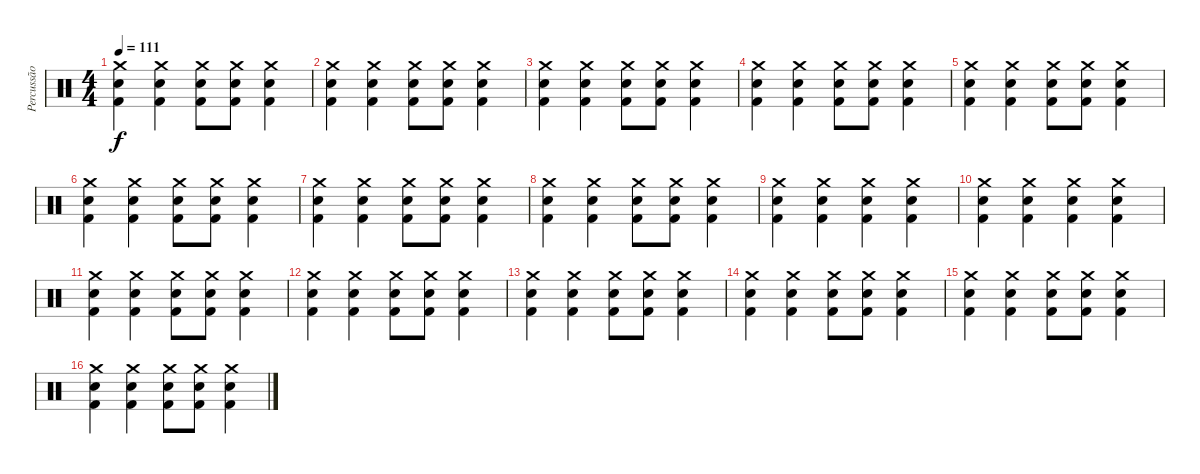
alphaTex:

\track ("Percussão" "Percussão") {instrument percussion}
\staff {score}
\articulation defaults
\ts (4 4)
\tempo 111
\clef neutral
\ks c
("Kick (hit) 2" "Electric Snare (hit)" "Crash medium (hit)").4{dy f} ("Kick (hit) 2" "Electric Snare (hit)" "Crash medium (hit)").4 ("Kick (hit) 2" "Electric Snare (hit)" "Crash medium (hit)").8 ("Kick (hit) 2" "Electric Snare (hit)" "Crash medium (hit)").8 ("Kick (hit) 2" "Electric Snare (hit)" "Crash medium (hit)").4 |
("Kick (hit) 2" "Electric Snare (hit)" "Crash medium (hit)").4 ("Kick (hit) 2" "Electric Snare (hit)" "Crash medium (hit)").4 ("Kick (hit) 2" "Electric Snare (hit)" "Crash medium (hit)").8 ("Kick (hit) 2" "Electric Snare (hit)" "Crash medium (hit)").8 ("Kick (hit) 2" "Electric Snare (hit)" "Crash medium (hit)").4 |
("Kick (hit) 2" "Electric Snare (hit)" "Crash medium (hit)").4 ("Kick (hit) 2" "Electric Snare (hit)" "Crash medium (hit)").4 ("Kick (hit) 2" "Electric Snare (hit)" "Crash medium (hit)").8 ("Kick (hit) 2" "Electric Snare (hit)" "Crash medium (hit)").8 ("Kick (hit) 2" "Electric Snare (hit)" "Crash medium (hit)").4 |
("Kick (hit) 2" "Electric Snare (hit)" "Crash medium (hit)").4 ("Kick (hit) 2" "Electric Snare (hit)" "Crash medium (hit)").4 ("Kick (hit) 2" "Electric Snare (hit)" "Crash medium (hit)").8 ("Kick (hit) 2" "Electric Snare (hit)" "Crash medium (hit)").8 ("Kick (hit) 2" "Electric Snare (hit)" "Crash medium (hit)").4 |
("Kick (hit) 2" "Electric Snare (hit)" "Crash medium (hit)").4 ("Kick (hit) 2" "Electric Snare (hit)" "Crash medium (hit)").4 ("Kick (hit) 2" "Electric Snare (hit)" "Crash medium (hit)").8 ("Kick (hit) 2" "Electric Snare (hit)" "Crash medium (hit)").8 ("Kick (hit) 2" "Electric Snare (hit)" "Crash medium (hit)").4 |
("Kick (hit) 2" "Electric Snare (hit)" "Crash medium (hit)").4 ("Kick (hit) 2" "Electric Snare (hit)" "Crash medium (hit)").4 ("Kick (hit) 2" "Electric Snare (hit)" "Crash medium (hit)").8 ("Kick (hit) 2" "Electric Snare (hit)" "Crash medium (hit)").8 ("Kick (hit) 2" "Electric Snare (hit)" "Crash medium (hit)").4 |
("Kick (hit) 2" "Electric Snare (hit)" "Crash medium (hit)").4 ("Kick (hit) 2" "Electric Snare (hit)" "Crash medium (hit)").4 ("Kick (hit) 2" "Electric Snare (hit)" "Crash medium (hit)").8 ("Kick (hit) 2" "Electric Snare (hit)" "Crash medium (hit)").8 ("Kick (hit) 2" "Electric Snare (hit)" "Crash medium (hit)").4 |
("Kick (hit) 2" "Electric Snare (hit)" "Crash medium (hit)").4 ("Kick (hit) 2" "Electric Snare (hit)" "Crash medium (hit)").4 ("Kick (hit) 2" "Electric Snare (hit)" "Crash medium (hit)").8 ("Kick (hit) 2" "Electric Snare (hit)" "Crash medium (hit)").8 ("Kick (hit) 2" "Electric Snare (hit)" "Crash medium (hit)").4 |
("Kick (hit) 2" "Electric Snare (hit)" "Crash medium (hit)").4 ("Kick (hit) 2" "Electric Snare (hit)" "Crash medium (hit)").4 ("Kick (hit) 2" "Electric Snare (hit)" "Crash medium (hit)").4 ("Kick (hit) 2" "Electric Snare (hit)" "Crash medium (hit)").4 |
("Kick (hit) 2" "Electric Snare (hit)" "Crash medium (hit)").4 ("Kick (hit) 2" "Electric Snare (hit)" "Crash medium (hit)").4 ("Kick (hit) 2" "Electric Snare (hit)" "Crash medium (hit)").4 ("Kick (hit) 2" "Electric Snare (hit)" "Crash medium (hit)").4 |
("Kick (hit) 2" "Electric Snare (hit)" "Crash medium (hit)").4 ("Kick (hit) 2" "Electric Snare (hit)" "Crash medium (hit)").4 ("Kick (hit) 2" "Electric Snare (hit)" "Crash medium (hit)").8 ("Kick (hit) 2" "Electric Snare (hit)" "Crash medium (hit)").8 ("Kick (hit) 2" "Electric Snare (hit)" "Crash medium (hit)").4 |
("Kick (hit) 2" "Electric Snare (hit)" "Crash medium (hit)").4 ("Kick (hit) 2" "Electric Snare (hit)" "Crash medium (hit)").4 ("Kick (hit) 2" "Electric Snare (hit)" "Crash medium (hit)").8 ("Kick (hit) 2" "Electric Snare (hit)" "Crash medium (hit)").8 ("Kick (hit) 2" "Electric Snare (hit)" "Crash medium (hit)").4 |
("Kick (hit) 2" "Electric Snare (hit)" "Crash medium (hit)").4 ("Kick (hit) 2" "Electric Snare (hit)" "Crash medium (hit)").4 ("Kick (hit) 2" "Electric Snare (hit)" "Crash medium (hit)").8 ("Kick (hit) 2" "Electric Snare (hit)" "Crash medium (hit)").8 ("Kick (hit) 2" "Electric Snare (hit)" "Crash medium (hit)").4 |
("Kick (hit) 2" "Electric Snare (hit)" "Crash medium (hit)").4 ("Kick (hit) 2" "Electric Snare (hit)" "Crash medium (hit)").4 ("Kick (hit) 2" "Electric Snare (hit)" "Crash medium (hit)").8 ("Kick (hit) 2" "Electric Snare (hit)" "Crash medium (hit)").8 ("Kick (hit) 2" "Electric Snare (hit)" "Crash medium (hit)").4 |
("Kick (hit) 2" "Electric Snare (hit)" "Crash medium (hit)").4 ("Kick (hit) 2" "Electric Snare (hit)" "Crash medium (hit)").4 ("Kick (hit) 2" "Electric Snare (hit)" "Crash medium (hit)").8 ("Kick (hit) 2" "Electric Snare (hit)" "Crash medium (hit)").8 ("Kick (hit) 2" "Electric Snare (hit)" "Crash medium (hit)").4 |
("Kick (hit) 2" "Electric Snare (hit)" "Crash medium (hit)").4 ("Kick (hit) 2" "Electric Snare (hit)" "Crash medium (hit)").4 ("Kick (hit) 2" "Electric Snare (hit)" "Crash medium (hit)").8 ("Kick (hit) 2" "Electric Snare (hit)" "Crash medium (hit)").8 ("Kick (hit) 2" "Electric Snare (hit)" "Crash medium (hit)").4
